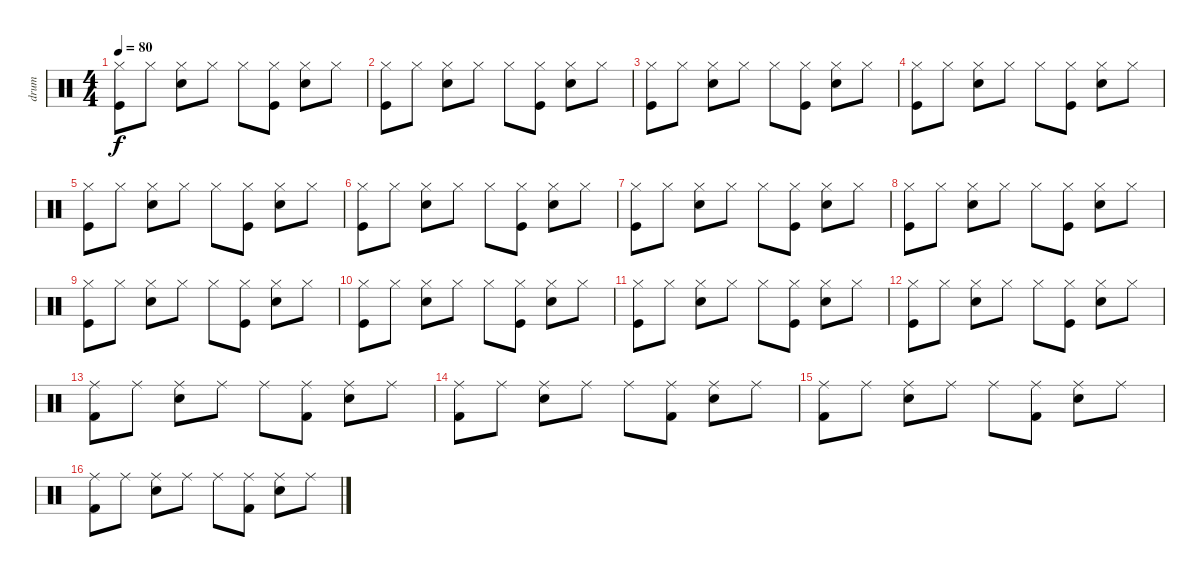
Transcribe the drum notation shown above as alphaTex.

\track ("drum" "drum") {instrument percussion}
\staff {score}
\articulation defaults
\ts (4 4)
\tempo 80
\clef neutral
\ks c
("Hi-Hat (closed)" "Kick (hit)").8{dy f} "Hi-Hat (closed)".8 ("Hi-Hat (closed)" "Electric Snare (hit)").8 "Hi-Hat (closed)".8 "Hi-Hat (closed)".8 ("Hi-Hat (closed)" "Kick (hit)").8 ("Hi-Hat (closed)" "Electric Snare (hit)").8 "Hi-Hat (closed)".8 |
("Hi-Hat (closed)" "Kick (hit)").8 "Hi-Hat (closed)".8 ("Hi-Hat (closed)" "Electric Snare (hit)").8 "Hi-Hat (closed)".8 "Hi-Hat (closed)".8 ("Hi-Hat (closed)" "Kick (hit)").8 ("Hi-Hat (closed)" "Electric Snare (hit)").8 "Hi-Hat (closed)".8 |
("Hi-Hat (closed)" "Kick (hit)").8 "Hi-Hat (closed)".8 ("Hi-Hat (closed)" "Electric Snare (hit)").8 "Hi-Hat (closed)".8 "Hi-Hat (closed)".8 ("Hi-Hat (closed)" "Kick (hit)").8 ("Hi-Hat (closed)" "Electric Snare (hit)").8 "Hi-Hat (closed)".8 |
("Hi-Hat (closed)" "Kick (hit)").8 "Hi-Hat (closed)".8 ("Hi-Hat (closed)" "Electric Snare (hit)").8 "Hi-Hat (closed)".8 "Hi-Hat (closed)".8 ("Hi-Hat (closed)" "Kick (hit)").8 ("Hi-Hat (closed)" "Electric Snare (hit)").8 "Hi-Hat (closed)".8 |
("Hi-Hat (closed)" "Kick (hit)").8 "Hi-Hat (closed)".8 ("Hi-Hat (closed)" "Electric Snare (hit)").8 "Hi-Hat (closed)".8 "Hi-Hat (closed)".8 ("Hi-Hat (closed)" "Kick (hit)").8 ("Hi-Hat (closed)" "Electric Snare (hit)").8 "Hi-Hat (closed)".8 |
("Hi-Hat (closed)" "Kick (hit)").8 "Hi-Hat (closed)".8 ("Hi-Hat (closed)" "Electric Snare (hit)").8 "Hi-Hat (closed)".8 "Hi-Hat (closed)".8 ("Hi-Hat (closed)" "Kick (hit)").8 ("Hi-Hat (closed)" "Electric Snare (hit)").8 "Hi-Hat (closed)".8 |
("Hi-Hat (closed)" "Kick (hit)").8 "Hi-Hat (closed)".8 ("Hi-Hat (closed)" "Electric Snare (hit)").8 "Hi-Hat (closed)".8 "Hi-Hat (closed)".8 ("Hi-Hat (closed)" "Kick (hit)").8 ("Hi-Hat (closed)" "Electric Snare (hit)").8 "Hi-Hat (closed)".8 |
("Hi-Hat (closed)" "Kick (hit)").8 "Hi-Hat (closed)".8 ("Hi-Hat (closed)" "Electric Snare (hit)").8 "Hi-Hat (closed)".8 "Hi-Hat (closed)".8 ("Hi-Hat (closed)" "Kick (hit)").8 ("Hi-Hat (closed)" "Electric Snare (hit)").8 "Hi-Hat (closed)".8 |
("Hi-Hat (closed)" "Kick (hit)").8 "Hi-Hat (closed)".8 ("Hi-Hat (closed)" "Electric Snare (hit)").8 "Hi-Hat (closed)".8 "Hi-Hat (closed)".8 ("Hi-Hat (closed)" "Kick (hit)").8 ("Hi-Hat (closed)" "Electric Snare (hit)").8 "Hi-Hat (closed)".8 |
("Hi-Hat (closed)" "Kick (hit)").8 "Hi-Hat (closed)".8 ("Hi-Hat (closed)" "Electric Snare (hit)").8 "Hi-Hat (closed)".8 "Hi-Hat (closed)".8 ("Hi-Hat (closed)" "Kick (hit)").8 ("Hi-Hat (closed)" "Electric Snare (hit)").8 "Hi-Hat (closed)".8 |
("Hi-Hat (closed)" "Kick (hit)").8 "Hi-Hat (closed)".8 ("Hi-Hat (closed)" "Electric Snare (hit)").8 "Hi-Hat (closed)".8 "Hi-Hat (closed)".8 ("Hi-Hat (closed)" "Kick (hit)").8 ("Hi-Hat (closed)" "Electric Snare (hit)").8 "Hi-Hat (closed)".8 |
("Hi-Hat (closed)" "Kick (hit)").8 "Hi-Hat (closed)".8 ("Hi-Hat (closed)" "Electric Snare (hit)").8 "Hi-Hat (closed)".8 "Hi-Hat (closed)".8 ("Hi-Hat (closed)" "Kick (hit)").8 ("Hi-Hat (closed)" "Electric Snare (hit)").8 "Hi-Hat (closed)".8 |
("Ride (middle)" "Kick (hit) 2").8 "Ride (middle)".8 ("Ride (middle)" "Snare (hit) 2").8 "Ride (middle)".8 "Ride (middle)".8 ("Ride (middle)" "Kick (hit) 2").8 ("Ride (middle)" "Snare (hit) 2").8 "Ride (middle)".8 |
("Ride (middle)" "Kick (hit) 2").8 "Ride (middle)".8 ("Ride (middle)" "Snare (hit) 2").8 "Ride (middle)".8 "Ride (middle)".8 ("Ride (middle)" "Kick (hit) 2").8 ("Ride (middle)" "Snare (hit) 2").8 "Ride (middle)".8 |
("Ride (middle)" "Kick (hit) 2").8 "Ride (middle)".8 ("Ride (middle)" "Snare (hit) 2").8 "Ride (middle)".8 "Ride (middle)".8 ("Ride (middle)" "Kick (hit) 2").8 ("Ride (middle)" "Snare (hit) 2").8 "Ride (middle)".8 |
("Ride (middle)" "Kick (hit) 2").8 "Ride (middle)".8 ("Ride (middle)" "Snare (hit) 2").8 "Ride (middle)".8 "Ride (middle)".8 ("Ride (middle)" "Kick (hit) 2").8 ("Ride (middle)" "Snare (hit) 2").8 "Ride (middle)".8
